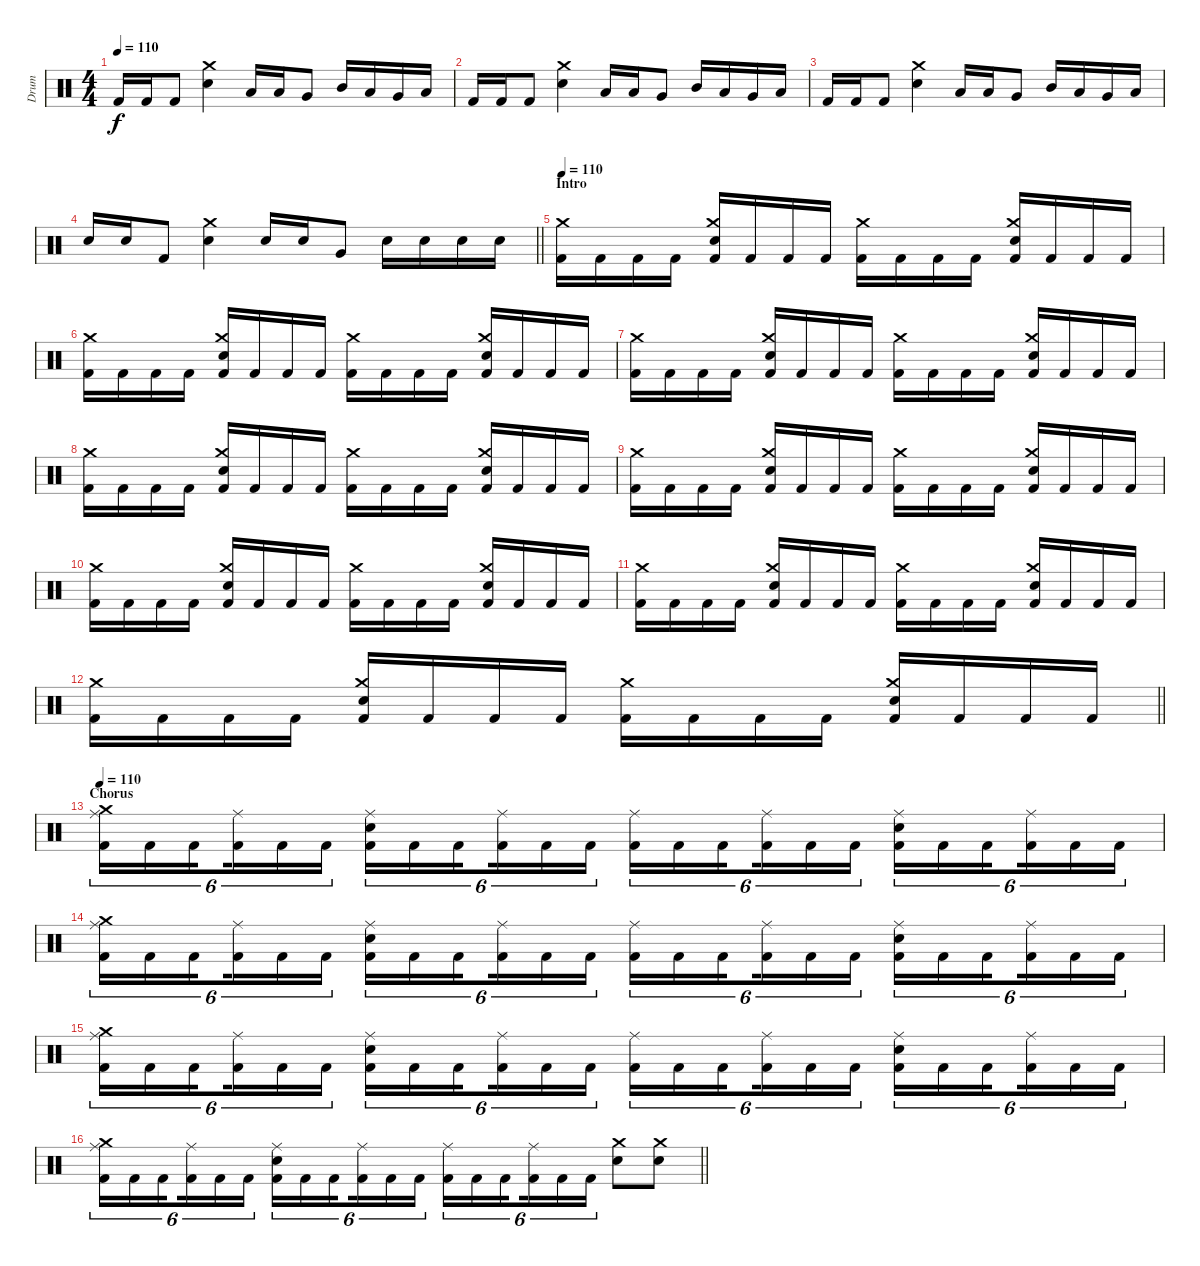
\track ("Drum" "Drum") {instrument percussion}
\staff {score}
\articulation defaults
\ts (4 4)
\tempo 110
\clef neutral
\ks c "Kick (hit) 2".16{dy f} "Kick (hit) 2".16 "Kick (hit) 2".8
("Crash medium (hit)" "Electric Snare (hit)").4 "Low Floor Tom (hit)".16 "Low Floor Tom (hit)".16 "Very Low Tom (hit)".8 "Mid Tom (hit)".16 "Low Tom (hit)".16 "Very Low Tom (hit)".16 "Low Floor Tom (hit)".16 |
"Kick (hit) 2".16 "Kick (hit) 2".16 "Kick (hit) 2".8 ("Crash medium (hit)" "Electric Snare (hit)").4 "Low Floor Tom (hit)".16 "Low Floor Tom (hit)".16 "Very Low Tom (hit)".8 "Mid Tom (hit)".16 "Low Tom (hit)".16 "Very Low Tom (hit)".16 "Low Floor Tom (hit)".16 |
"Kick (hit) 2".16 "Kick (hit) 2".16 "Kick (hit) 2".8 ("Crash medium (hit)" "Electric Snare (hit)").4 "Low Floor Tom (hit)".16 "Low Floor Tom (hit)".16 "Very Low Tom (hit)".8 "Mid Tom (hit)".16 "Low Tom (hit)".16 "Very Low Tom (hit)".16 "Low Floor Tom (hit)".16 |
\barLineRight lightlight "Electric Snare (hit)".16 "Electric Snare (hit)".16 "Kick (hit) 2".8
("Crash medium (hit)" "Electric Snare (hit)").4 "Electric Snare (hit)".16 "Electric Snare (hit)".16 "Very Low Tom (hit)".8 "Electric Snare (hit)".16 "Electric Snare (hit)".16 "Electric Snare (hit)".16 "Electric Snare (hit)".16 |
\section ("" "Intro")
\tempo 110
("Crash medium (hit)" "Kick (hit) 2").16 "Kick (hit) 2".16 "Kick (hit) 2".16 "Kick (hit) 2".16 ("Crash medium (hit)" "Electric Snare (hit)" "Kick (hit) 2").16 "Kick (hit) 2".16 "Kick (hit) 2".16 "Kick (hit) 2".16 ("Crash medium (hit)" "Kick (hit) 2").16 "Kick (hit) 2".16 "Kick (hit) 2".16 "Kick (hit) 2".16 ("Crash medium (hit)" "Electric Snare (hit)" "Kick (hit) 2").16 "Kick (hit) 2".16 "Kick (hit) 2".16 "Kick (hit) 2".16 |
("Crash medium (hit)" "Kick (hit) 2").16 "Kick (hit) 2".16 "Kick (hit) 2".16 "Kick (hit) 2".16 ("Crash medium (hit)" "Electric Snare (hit)" "Kick (hit) 2").16 "Kick (hit) 2".16 "Kick (hit) 2".16 "Kick (hit) 2".16 ("Crash medium (hit)" "Kick (hit) 2").16 "Kick (hit) 2".16 "Kick (hit) 2".16 "Kick (hit) 2".16 ("Crash medium (hit)" "Electric Snare (hit)" "Kick (hit) 2").16 "Kick (hit) 2".16 "Kick (hit) 2".16 "Kick (hit) 2".16 |
("Crash medium (hit)" "Kick (hit) 2").16 "Kick (hit) 2".16 "Kick (hit) 2".16 "Kick (hit) 2".16 ("Crash medium (hit)" "Electric Snare (hit)" "Kick (hit) 2").16 "Kick (hit) 2".16 "Kick (hit) 2".16 "Kick (hit) 2".16 ("Crash medium (hit)" "Kick (hit) 2").16 "Kick (hit) 2".16 "Kick (hit) 2".16 "Kick (hit) 2".16 ("Crash medium (hit)" "Electric Snare (hit)" "Kick (hit) 2").16 "Kick (hit) 2".16 "Kick (hit) 2".16 "Kick (hit) 2".16 |
("Crash medium (hit)" "Kick (hit) 2").16 "Kick (hit) 2".16 "Kick (hit) 2".16 "Kick (hit) 2".16 ("Crash medium (hit)" "Electric Snare (hit)" "Kick (hit) 2").16 "Kick (hit) 2".16 "Kick (hit) 2".16 "Kick (hit) 2".16 ("Crash medium (hit)" "Kick (hit) 2").16 "Kick (hit) 2".16 "Kick (hit) 2".16 "Kick (hit) 2".16 ("Crash medium (hit)" "Electric Snare (hit)" "Kick (hit) 2").16 "Kick (hit) 2".16 "Kick (hit) 2".16 "Kick (hit) 2".16 |
("Crash medium (hit)" "Kick (hit) 2").16 "Kick (hit) 2".16 "Kick (hit) 2".16 "Kick (hit) 2".16 ("Crash medium (hit)" "Electric Snare (hit)" "Kick (hit) 2").16 "Kick (hit) 2".16 "Kick (hit) 2".16 "Kick (hit) 2".16 ("Crash medium (hit)" "Kick (hit) 2").16 "Kick (hit) 2".16 "Kick (hit) 2".16 "Kick (hit) 2".16 ("Crash medium (hit)" "Electric Snare (hit)" "Kick (hit) 2").16 "Kick (hit) 2".16 "Kick (hit) 2".16 "Kick (hit) 2".16 |
("Crash medium (hit)" "Kick (hit) 2").16 "Kick (hit) 2".16 "Kick (hit) 2".16 "Kick (hit) 2".16 ("Crash medium (hit)" "Electric Snare (hit)" "Kick (hit) 2").16 "Kick (hit) 2".16 "Kick (hit) 2".16 "Kick (hit) 2".16 ("Crash medium (hit)" "Kick (hit) 2").16 "Kick (hit) 2".16 "Kick (hit) 2".16 "Kick (hit) 2".16 ("Crash medium (hit)" "Electric Snare (hit)" "Kick (hit) 2").16 "Kick (hit) 2".16 "Kick (hit) 2".16 "Kick (hit) 2".16 |
("Crash medium (hit)" "Kick (hit) 2").16 "Kick (hit) 2".16 "Kick (hit) 2".16 "Kick (hit) 2".16 ("Crash medium (hit)" "Electric Snare (hit)" "Kick (hit) 2").16 "Kick (hit) 2".16 "Kick (hit) 2".16 "Kick (hit) 2".16 ("Crash medium (hit)" "Kick (hit) 2").16 "Kick (hit) 2".16 "Kick (hit) 2".16 "Kick (hit) 2".16 ("Crash medium (hit)" "Electric Snare (hit)" "Kick (hit) 2").16 "Kick (hit) 2".16 "Kick (hit) 2".16 "Kick (hit) 2".16 |
\barLineRight lightlight
("Crash medium (hit)" "Kick (hit) 2").16 "Kick (hit) 2".16 "Kick (hit) 2".16 "Kick (hit) 2".16 ("Crash medium (hit)" "Electric Snare (hit)" "Kick (hit) 2").16 "Kick (hit) 2".16 "Kick (hit) 2".16 "Kick (hit) 2".16 ("Crash medium (hit)" "Kick (hit) 2").16 "Kick (hit) 2".16 "Kick (hit) 2".16 "Kick (hit) 2".16 ("Crash medium (hit)" "Electric Snare (hit)" "Kick (hit) 2").16 "Kick (hit) 2".16 "Kick (hit) 2".16 "Kick (hit) 2".16 |
\section ("" "Chorus")
\tempo 110
("Crash medium (hit)" "Ride (middle)" "Kick (hit) 2").16{tu (6 4)} "Kick (hit) 2".16{tu (6 4)} "Kick (hit) 2".16{tu (6 4) beam splitsecondary} ("Ride (middle)" "Kick (hit) 2").16{tu (6 4)} "Kick (hit) 2".16{tu (6 4)} "Kick (hit) 2".16{tu (6 4)} ("Ride (middle)" "Electric Snare (hit)" "Kick (hit) 2").16{tu (6 4)} "Kick (hit) 2".16{tu (6 4)} "Kick (hit) 2".16{tu (6 4) beam splitsecondary} ("Ride (middle)" "Kick (hit) 2").16{tu (6 4)} "Kick (hit) 2".16{tu (6 4)} "Kick (hit) 2".16{tu (6 4)} ("Ride (middle)" "Kick (hit) 2").16{tu (6 4)} "Kick (hit) 2".16{tu (6 4)} "Kick (hit) 2".16{tu (6 4) beam splitsecondary} ("Ride (middle)" "Kick (hit) 2").16{tu (6 4)} "Kick (hit) 2".16{tu (6 4)} "Kick (hit) 2".16{tu (6 4)} ("Ride (middle)" "Electric Snare (hit)" "Kick (hit) 2").16{tu (6 4)} "Kick (hit) 2".16{tu (6 4)} "Kick (hit) 2".16{tu (6 4) beam splitsecondary} ("Ride (middle)" "Kick (hit) 2").16{tu (6 4)} "Kick (hit) 2".16{tu (6 4)} "Kick (hit) 2".16{tu (6 4)} |
("Crash medium (hit)" "Ride (middle)" "Kick (hit) 2").16{tu (6 4)} "Kick (hit) 2".16{tu (6 4)} "Kick (hit) 2".16{tu (6 4) beam splitsecondary} ("Ride (middle)" "Kick (hit) 2").16{tu (6 4)} "Kick (hit) 2".16{tu (6 4)} "Kick (hit) 2".16{tu (6 4)} ("Ride (middle)" "Electric Snare (hit)" "Kick (hit) 2").16{tu (6 4)} "Kick (hit) 2".16{tu (6 4)} "Kick (hit) 2".16{tu (6 4) beam splitsecondary} ("Ride (middle)" "Kick (hit) 2").16{tu (6 4)} "Kick (hit) 2".16{tu (6 4)} "Kick (hit) 2".16{tu (6 4)} ("Ride (middle)" "Kick (hit) 2").16{tu (6 4)} "Kick (hit) 2".16{tu (6 4)} "Kick (hit) 2".16{tu (6 4) beam splitsecondary} ("Ride (middle)" "Kick (hit) 2").16{tu (6 4)} "Kick (hit) 2".16{tu (6 4)} "Kick (hit) 2".16{tu (6 4)} ("Ride (middle)" "Electric Snare (hit)" "Kick (hit) 2").16{tu (6 4)} "Kick (hit) 2".16{tu (6 4)} "Kick (hit) 2".16{tu (6 4) beam splitsecondary} ("Ride (middle)" "Kick (hit) 2").16{tu (6 4)} "Kick (hit) 2".16{tu (6 4)} "Kick (hit) 2".16{tu (6 4)} |
("Crash medium (hit)" "Ride (middle)" "Kick (hit) 2").16{tu (6 4)} "Kick (hit) 2".16{tu (6 4)} "Kick (hit) 2".16{tu (6 4) beam splitsecondary} ("Ride (middle)" "Kick (hit) 2").16{tu (6 4)} "Kick (hit) 2".16{tu (6 4)} "Kick (hit) 2".16{tu (6 4)} ("Ride (middle)" "Electric Snare (hit)" "Kick (hit) 2").16{tu (6 4)} "Kick (hit) 2".16{tu (6 4)} "Kick (hit) 2".16{tu (6 4) beam splitsecondary} ("Ride (middle)" "Kick (hit) 2").16{tu (6 4)} "Kick (hit) 2".16{tu (6 4)} "Kick (hit) 2".16{tu (6 4)} ("Ride (middle)" "Kick (hit) 2").16{tu (6 4)} "Kick (hit) 2".16{tu (6 4)} "Kick (hit) 2".16{tu (6 4) beam splitsecondary} ("Ride (middle)" "Kick (hit) 2").16{tu (6 4)} "Kick (hit) 2".16{tu (6 4)} "Kick (hit) 2".16{tu (6 4)} ("Ride (middle)" "Electric Snare (hit)" "Kick (hit) 2").16{tu (6 4)} "Kick (hit) 2".16{tu (6 4)} "Kick (hit) 2".16{tu (6 4) beam splitsecondary} ("Ride (middle)" "Kick (hit) 2").16{tu (6 4)} "Kick (hit) 2".16{tu (6 4)} "Kick (hit) 2".16{tu (6 4)} |
\barLineRight lightlight
("Crash medium (hit)" "Ride (middle)" "Kick (hit) 2").16{tu (6 4)} "Kick (hit) 2".16{tu (6 4)} "Kick (hit) 2".16{tu (6 4) beam splitsecondary} ("Ride (middle)" "Kick (hit) 2").16{tu (6 4)} "Kick (hit) 2".16{tu (6 4)} "Kick (hit) 2".16{tu (6 4)} ("Ride (middle)" "Electric Snare (hit)" "Kick (hit) 2").16{tu (6 4)} "Kick (hit) 2".16{tu (6 4)} "Kick (hit) 2".16{tu (6 4) beam splitsecondary} ("Ride (middle)" "Kick (hit) 2").16{tu (6 4)} "Kick (hit) 2".16{tu (6 4)} "Kick (hit) 2".16{tu (6 4)} ("Ride (middle)" "Kick (hit) 2").16{tu (6 4)} "Kick (hit) 2".16{tu (6 4)} "Kick (hit) 2".16{tu (6 4) beam splitsecondary} ("Ride (middle)" "Kick (hit) 2").16{tu (6 4)} "Kick (hit) 2".16{tu (6 4)} "Kick (hit) 2".16{tu (6 4)} ("Crash medium (hit)" "Electric Snare (hit)").8 ("Crash medium (hit)" "Electric Snare (hit)").8
